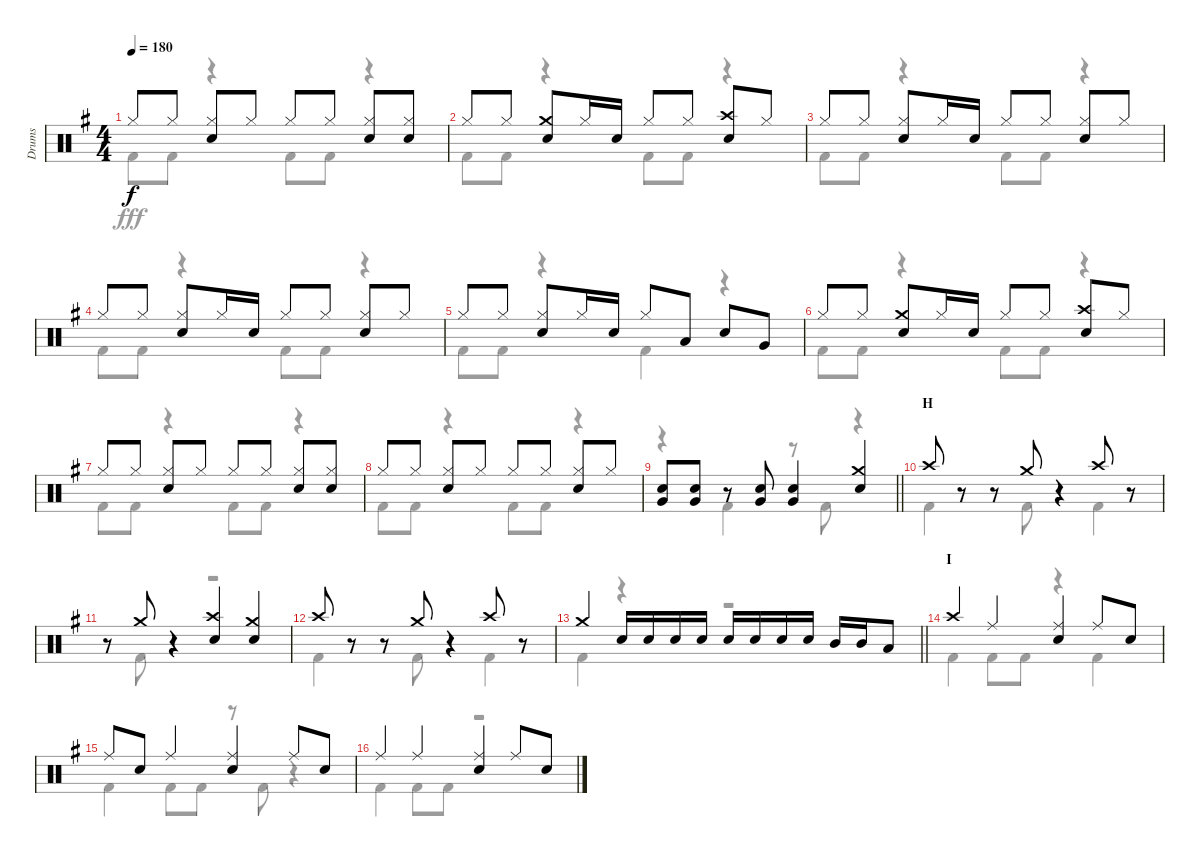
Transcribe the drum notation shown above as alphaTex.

\track ("Drums" "Drums") {instrument percussion}
\staff {score}
\articulation defaults
\voice
\ts (4 4)
\tempo 180
\clef neutral
\ks g "Hi-Hat (closed)".8{dy f} "Hi-Hat (closed)".8
("Hi-Hat (closed)" "Snare (hit) 2").8 "Hi-Hat (closed)".8 "Hi-Hat (closed)".8 "Hi-Hat (closed)".8 ("Hi-Hat (closed)" "Snare (hit) 2").8 ("Hi-Hat (closed)" "Snare (hit) 2").8 |
"Hi-Hat (closed)".8 "Hi-Hat (closed)".8 ("Crash medium (hit)" "Snare (hit) 2").8 "Hi-Hat (closed)".16 "Snare (hit) 2".16 "Hi-Hat (closed)".8 "Hi-Hat (closed)".8 ("Crash high (hit)" "Snare (hit) 2").8 "Hi-Hat (closed)".8 |
"Hi-Hat (closed)".8 "Hi-Hat (closed)".8 ("Hi-Hat (closed)" "Snare (hit) 2").8 "Hi-Hat (closed)".16 "Snare (hit) 2".16 "Hi-Hat (closed)".8 "Hi-Hat (closed)".8 ("Hi-Hat (closed)" "Snare (hit) 2").8 "Hi-Hat (closed)".8 |
"Hi-Hat (closed)".8 "Hi-Hat (closed)".8 ("Hi-Hat (closed)" "Snare (hit) 2").8 "Hi-Hat (closed)".16 "Snare (hit) 2".16 "Hi-Hat (closed)".8 "Hi-Hat (closed)".8 ("Hi-Hat (closed)" "Snare (hit) 2").8 "Hi-Hat (closed)".8 |
"Hi-Hat (closed)".8 "Hi-Hat (closed)".8 ("Hi-Hat (closed)" "Snare (hit) 2").8 "Hi-Hat (closed)".16 "Snare (hit) 2".16 "Hi-Hat (closed)".8 "Low Tom (hit)".8 "Snare (hit) 2".8 "Very Low Tom (hit)".8 |
"Hi-Hat (closed)".8 "Hi-Hat (closed)".8 ("Crash medium (hit)" "Snare (hit) 2").8 "Hi-Hat (closed)".16 "Snare (hit) 2".16 "Hi-Hat (closed)".8 "Hi-Hat (closed)".8 ("Crash high (hit)" "Snare (hit) 2").8 "Hi-Hat (closed)".8 |
"Hi-Hat (closed)".8 "Hi-Hat (closed)".8 ("Hi-Hat (closed)" "Snare (hit) 2").8 "Hi-Hat (closed)".8 "Hi-Hat (closed)".8 "Hi-Hat (closed)".8 ("Hi-Hat (closed)" "Snare (hit) 2").8 ("Hi-Hat (closed)" "Snare (hit) 2").8 |
"Hi-Hat (closed)".8 "Hi-Hat (closed)".8 ("Hi-Hat (closed)" "Snare (hit) 2").8 "Hi-Hat (closed)".8 "Hi-Hat (closed)".8 "Hi-Hat (closed)".8 ("Hi-Hat (closed)" "Snare (hit) 2").8 "Hi-Hat (closed)".8 |
\barLineRight lightlight
("Snare (hit) 2" "Very Low Tom (hit)").8 ("Snare (hit) 2" "Very Low Tom (hit)").8 r.8 ("Snare (hit) 2" "Very Low Tom (hit)").8 ("Snare (hit) 2" "Very Low Tom (hit)").4 ("Crash medium (hit)" "Snare (hit) 2").4 |
\section ("" "H")
"Crash high (hit)".8 r.8 r.8 "Crash medium (hit)".8 r.4 "Crash high (hit)".8 r.8 |
r.8 "Crash medium (hit)".8 r.4 ("Crash high (hit)" "Snare (hit) 2").4 ("Crash medium (hit)" "Snare (hit) 2").4 |
"Crash high (hit)".8 r.8 r.8 "Crash medium (hit)".8 r.4 "Crash high (hit)".8 r.8 |
\barLineRight lightlight "Crash medium (hit)".4 "Snare (hit) 2".16 "Snare (hit) 2".16 "Snare (hit) 2".16 "Snare (hit) 2".16 "Snare (hit) 2".16 "Snare (hit) 2".16 "Snare (hit) 2".16 "Snare (hit) 2".16 "Mid Tom (hit)".16 "Mid Tom (hit)".16 "Low Tom (hit)".8
|
\section ("" "I")
"Crash high (hit)".4 "Ride (middle)".4 ("Ride (middle)" "Snare (hit) 2").4 "Ride (middle)".8 "Snare (hit) 2".8 |
"Ride (middle)".8 "Snare (hit) 2".8 "Ride (middle)".4 ("Ride (middle)" "Snare (hit) 2").4 "Ride (middle)".8 "Snare (hit) 2".8 |
"Ride (middle)".4 "Ride (middle)".4 ("Ride (middle)" "Snare (hit) 2").4 "Ride (middle)".8 "Snare (hit) 2".8
\voice
\clef neutral
\ottava regular
\simile none
\ks g "Kick (hit) 2".8{dy fff} "Kick (hit) 2".8
r.4 "Kick (hit) 2".8 "Kick (hit) 2".8 r.4 |
"Kick (hit) 2".8 "Kick (hit) 2".8 r.4 "Kick (hit) 2".8 "Kick (hit) 2".8 r.4 |
"Kick (hit) 2".8 "Kick (hit) 2".8 r.4 "Kick (hit) 2".8 "Kick (hit) 2".8 r.4 |
"Kick (hit) 2".8 "Kick (hit) 2".8 r.4 "Kick (hit) 2".8 "Kick (hit) 2".8 r.4 |
"Kick (hit) 2".8 "Kick (hit) 2".8 r.4 "Kick (hit) 2".4 r.4 |
"Kick (hit) 2".8 "Kick (hit) 2".8 r.4 "Kick (hit) 2".8 "Kick (hit) 2".8 r.4 |
"Kick (hit) 2".8 "Kick (hit) 2".8 r.4 "Kick (hit) 2".8 "Kick (hit) 2".8 r.4 |
"Kick (hit) 2".8 "Kick (hit) 2".8 r.4 "Kick (hit) 2".8 "Kick (hit) 2".8 r.4 |
\barLineRight lightlight
r.4 "Kick (hit) 2".4 r.8 "Kick (hit) 2".8 r.4 |
"Kick (hit) 2".4 r.8 "Kick (hit) 2".8 r.4 "Kick (hit) 2".4 |
r.8 "Kick (hit) 2".8 r.4 r.2 |
"Kick (hit) 2".4 r.8 "Kick (hit) 2".8 r.4 "Kick (hit) 2".4 |
\barLineRight lightlight "Kick (hit) 2".4
r.4 r.2 |
"Kick (hit) 2".4 "Kick (hit) 2".8 "Kick (hit) 2".8 r.4 "Kick (hit) 2".4 |
"Kick (hit) 2".4 "Kick (hit) 2".8 "Kick (hit) 2".8 r.8 "Kick (hit) 2".8 r.4 |
"Kick (hit) 2".4 "Kick (hit) 2".8 "Kick (hit) 2".8 r.2
